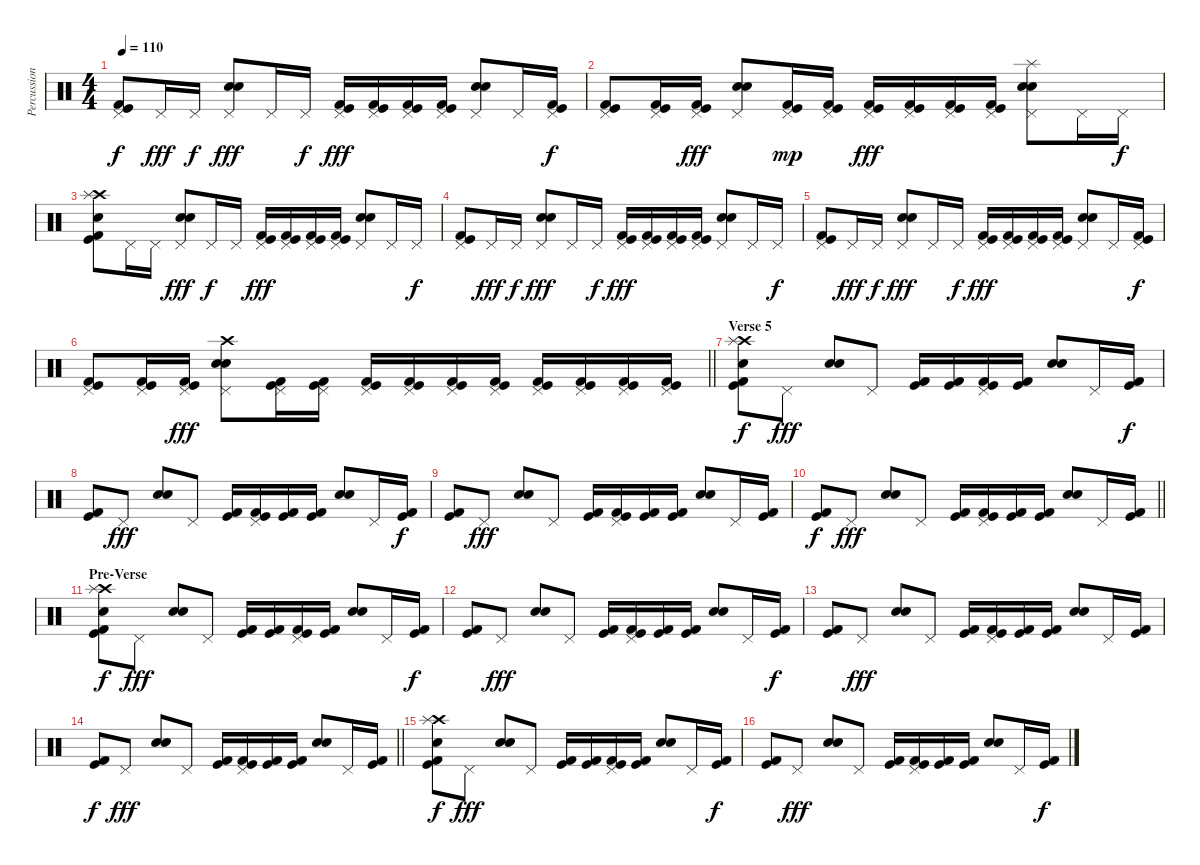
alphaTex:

\track ("Percussion" "Percussion") {instrument percussion}
\staff {score}
\articulation defaults
\ts (4 4)
\tempo 110
\clef neutral
\ks c
("Pedal Hi-Hat (hit)" "Kick (hit)" "Kick (hit) 2").8{dy f} "Pedal Hi-Hat (hit)".16{dy fff} "Pedal Hi-Hat (hit)".16{dy f} ("Electric Snare (hit)" "Snare (hit) 2" "Pedal Hi-Hat (hit)").8{dy fff} "Pedal Hi-Hat (hit)".16 "Pedal Hi-Hat (hit)".16{dy f} ("Pedal Hi-Hat (hit)" "Kick (hit)" "Kick (hit) 2").16{dy fff} ("Pedal Hi-Hat (hit)" "Kick (hit)" "Kick (hit) 2").16 ("Pedal Hi-Hat (hit)" "Kick (hit)" "Kick (hit) 2").16 ("Pedal Hi-Hat (hit)" "Kick (hit)" "Kick (hit) 2").16 ("Electric Snare (hit)" "Snare (hit) 2" "Pedal Hi-Hat (hit)").8 "Pedal Hi-Hat (hit)".16 ("Pedal Hi-Hat (hit)" "Kick (hit)" "Kick (hit) 2").16{dy f} |
("Pedal Hi-Hat (hit)" "Kick (hit)" "Kick (hit) 2").8 ("Pedal Hi-Hat (hit)" "Kick (hit)" "Kick (hit) 2").16 ("Pedal Hi-Hat (hit)" "Kick (hit)" "Kick (hit) 2").16{dy fff} ("Electric Snare (hit)" "Snare (hit) 2" "Pedal Hi-Hat (hit)").8 ("Pedal Hi-Hat (hit)" "Kick (hit)" "Kick (hit) 2").16{dy mp} ("Pedal Hi-Hat (hit)" "Kick (hit)" "Kick (hit) 2").16 ("Pedal Hi-Hat (hit)" "Kick (hit)" "Kick (hit) 2").16{dy fff} ("Pedal Hi-Hat (hit)" "Kick (hit)" "Kick (hit) 2").16 ("Pedal Hi-Hat (hit)" "Kick (hit)" "Kick (hit) 2").16 ("Pedal Hi-Hat (hit)" "Kick (hit)" "Kick (hit) 2").16 ("Splash (hit)" "Electric Snare (hit)" "Snare (hit) 2" "Pedal Hi-Hat (hit)").8 "Pedal Hi-Hat (hit)".16 "Pedal Hi-Hat (hit)".16{dy f} |
("Crash high (hit)" "Splash (hit)" "Snare (hit) 2" "Kick (hit)" "Kick (hit) 2").8 "Pedal Hi-Hat (hit)".16 "Pedal Hi-Hat (hit)".16 ("Electric Snare (hit)" "Snare (hit) 2" "Pedal Hi-Hat (hit)").8{dy fff} "Pedal Hi-Hat (hit)".16{dy f} "Pedal Hi-Hat (hit)".16 ("Pedal Hi-Hat (hit)" "Kick (hit)" "Kick (hit) 2").16{dy fff} ("Pedal Hi-Hat (hit)" "Kick (hit)" "Kick (hit) 2").16 ("Pedal Hi-Hat (hit)" "Kick (hit)" "Kick (hit) 2").16 ("Pedal Hi-Hat (hit)" "Kick (hit)" "Kick (hit) 2").16 ("Electric Snare (hit)" "Snare (hit) 2" "Pedal Hi-Hat (hit)").8 "Pedal Hi-Hat (hit)".16 "Pedal Hi-Hat (hit)".16{dy f} |
("Pedal Hi-Hat (hit)" "Kick (hit)" "Kick (hit) 2").8 "Pedal Hi-Hat (hit)".16{dy fff} "Pedal Hi-Hat (hit)".16{dy f} ("Electric Snare (hit)" "Snare (hit) 2" "Pedal Hi-Hat (hit)").8{dy fff} "Pedal Hi-Hat (hit)".16 "Pedal Hi-Hat (hit)".16{dy f} ("Pedal Hi-Hat (hit)" "Kick (hit)" "Kick (hit) 2").16{dy fff} ("Pedal Hi-Hat (hit)" "Kick (hit)" "Kick (hit) 2").16 ("Pedal Hi-Hat (hit)" "Kick (hit)" "Kick (hit) 2").16 ("Pedal Hi-Hat (hit)" "Kick (hit)" "Kick (hit) 2").16 ("Electric Snare (hit)" "Snare (hit) 2" "Pedal Hi-Hat (hit)").8 "Pedal Hi-Hat (hit)".16 "Pedal Hi-Hat (hit)".16{dy f} |
("Pedal Hi-Hat (hit)" "Kick (hit)" "Kick (hit) 2").8 "Pedal Hi-Hat (hit)".16{dy fff} "Pedal Hi-Hat (hit)".16{dy f} ("Electric Snare (hit)" "Snare (hit) 2" "Pedal Hi-Hat (hit)").8{dy fff} "Pedal Hi-Hat (hit)".16 "Pedal Hi-Hat (hit)".16{dy f} ("Pedal Hi-Hat (hit)" "Kick (hit)" "Kick (hit) 2").16{dy fff} ("Pedal Hi-Hat (hit)" "Kick (hit)" "Kick (hit) 2").16 ("Pedal Hi-Hat (hit)" "Kick (hit)" "Kick (hit) 2").16 ("Pedal Hi-Hat (hit)" "Kick (hit)" "Kick (hit) 2").16 ("Electric Snare (hit)" "Snare (hit) 2" "Pedal Hi-Hat (hit)").8 "Pedal Hi-Hat (hit)".16 ("Pedal Hi-Hat (hit)" "Kick (hit)" "Kick (hit) 2").16{dy f} |
\barLineRight lightlight
("Pedal Hi-Hat (hit)" "Kick (hit)" "Kick (hit) 2").8 ("Pedal Hi-Hat (hit)" "Kick (hit)" "Kick (hit) 2").16 ("Pedal Hi-Hat (hit)" "Kick (hit)" "Kick (hit) 2").16{dy fff} ("Crash high (hit)" "Electric Snare (hit)" "Snare (hit) 2" "Pedal Hi-Hat (hit)").8 ("Pedal Hi-Hat (hit)" "Kick (hit)" "Kick (hit) 2").16 ("Pedal Hi-Hat (hit)" "Kick (hit)" "Kick (hit) 2").16 ("Pedal Hi-Hat (hit)" "Kick (hit)" "Kick (hit) 2").16 ("Pedal Hi-Hat (hit)" "Kick (hit)" "Kick (hit) 2").16 ("Pedal Hi-Hat (hit)" "Kick (hit)" "Kick (hit) 2").16 ("Pedal Hi-Hat (hit)" "Kick (hit)" "Kick (hit) 2").16 ("Pedal Hi-Hat (hit)" "Kick (hit)" "Kick (hit) 2").16 ("Pedal Hi-Hat (hit)" "Kick (hit)" "Kick (hit) 2").16 ("Pedal Hi-Hat (hit)" "Kick (hit)" "Kick (hit) 2").16 ("Pedal Hi-Hat (hit)" "Kick (hit)" "Kick (hit) 2").16 |
\section ("" "Verse 5")
("Crash high (hit)" "Splash (hit)" "Snare (hit) 2" "Kick (hit)" "Kick (hit) 2").8{dy f} "Pedal Hi-Hat (hit)".8{dy fff} ("Electric Snare (hit)" "Snare (hit) 2").8 "Pedal Hi-Hat (hit)".8 ("Kick (hit)" "Kick (hit) 2").16 ("Kick (hit)" "Kick (hit) 2").16 ("Pedal Hi-Hat (hit)" "Kick (hit)" "Kick (hit) 2").16 ("Kick (hit)" "Kick (hit) 2").16 ("Electric Snare (hit)" "Snare (hit) 2").8 "Pedal Hi-Hat (hit)".16 ("Kick (hit)" "Kick (hit) 2").16{dy f} |
("Kick (hit)" "Kick (hit) 2").8 "Pedal Hi-Hat (hit)".8{dy fff} ("Electric Snare (hit)" "Snare (hit) 2").8 "Pedal Hi-Hat (hit)".8 ("Kick (hit)" "Kick (hit) 2").16 ("Pedal Hi-Hat (hit)" "Kick (hit)" "Kick (hit) 2").16 ("Kick (hit)" "Kick (hit) 2").16 ("Kick (hit)" "Kick (hit) 2").16 ("Electric Snare (hit)" "Snare (hit) 2").8 "Pedal Hi-Hat (hit)".16 ("Kick (hit)" "Kick (hit) 2").16{dy f} |
("Kick (hit)" "Kick (hit) 2").8 "Pedal Hi-Hat (hit)".8{dy fff} ("Electric Snare (hit)" "Snare (hit) 2").8 "Pedal Hi-Hat (hit)".8 ("Kick (hit)" "Kick (hit) 2").16 ("Pedal Hi-Hat (hit)" "Kick (hit)" "Kick (hit) 2").16 ("Kick (hit)" "Kick (hit) 2").16 ("Kick (hit)" "Kick (hit) 2").16 ("Electric Snare (hit)" "Snare (hit) 2").8 "Pedal Hi-Hat (hit)".16 ("Kick (hit)" "Kick (hit) 2").16 |
\barLineRight lightlight
("Kick (hit)" "Kick (hit) 2").8{dy f} "Pedal Hi-Hat (hit)".8{dy fff} ("Electric Snare (hit)" "Snare (hit) 2").8 "Pedal Hi-Hat (hit)".8 ("Kick (hit)" "Kick (hit) 2").16 ("Pedal Hi-Hat (hit)" "Kick (hit)" "Kick (hit) 2").16 ("Kick (hit)" "Kick (hit) 2").16 ("Kick (hit)" "Kick (hit) 2").16 ("Electric Snare (hit)" "Snare (hit) 2").8 "Pedal Hi-Hat (hit)".16 ("Kick (hit)" "Kick (hit) 2").16 |
\section ("" "Pre-Verse")
("Crash high (hit)" "Splash (hit)" "Snare (hit) 2" "Kick (hit)" "Kick (hit) 2").8{dy f} "Pedal Hi-Hat (hit)".8{dy fff} ("Electric Snare (hit)" "Snare (hit) 2").8 "Pedal Hi-Hat (hit)".8 ("Kick (hit)" "Kick (hit) 2").16 ("Kick (hit)" "Kick (hit) 2").16 ("Pedal Hi-Hat (hit)" "Kick (hit)" "Kick (hit) 2").16 ("Kick (hit)" "Kick (hit) 2").16 ("Electric Snare (hit)" "Snare (hit) 2").8 "Pedal Hi-Hat (hit)".16 ("Kick (hit)" "Kick (hit) 2").16{dy f} |
("Kick (hit)" "Kick (hit) 2").8 "Pedal Hi-Hat (hit)".8{dy fff} ("Electric Snare (hit)" "Snare (hit) 2").8 "Pedal Hi-Hat (hit)".8 ("Kick (hit)" "Kick (hit) 2").16 ("Pedal Hi-Hat (hit)" "Kick (hit)" "Kick (hit) 2").16 ("Kick (hit)" "Kick (hit) 2").16 ("Kick (hit)" "Kick (hit) 2").16 ("Electric Snare (hit)" "Snare (hit) 2").8 "Pedal Hi-Hat (hit)".16 ("Kick (hit)" "Kick (hit) 2").16{dy f} |
("Kick (hit)" "Kick (hit) 2").8 "Pedal Hi-Hat (hit)".8{dy fff} ("Electric Snare (hit)" "Snare (hit) 2").8 "Pedal Hi-Hat (hit)".8 ("Kick (hit)" "Kick (hit) 2").16 ("Pedal Hi-Hat (hit)" "Kick (hit)" "Kick (hit) 2").16 ("Kick (hit)" "Kick (hit) 2").16 ("Kick (hit)" "Kick (hit) 2").16 ("Electric Snare (hit)" "Snare (hit) 2").8 "Pedal Hi-Hat (hit)".16 ("Kick (hit)" "Kick (hit) 2").16 |
\barLineRight lightlight
("Kick (hit)" "Kick (hit) 2").8{dy f} "Pedal Hi-Hat (hit)".8{dy fff} ("Electric Snare (hit)" "Snare (hit) 2").8 "Pedal Hi-Hat (hit)".8 ("Kick (hit)" "Kick (hit) 2").16 ("Pedal Hi-Hat (hit)" "Kick (hit)" "Kick (hit) 2").16 ("Kick (hit)" "Kick (hit) 2").16 ("Kick (hit)" "Kick (hit) 2").16 ("Electric Snare (hit)" "Snare (hit) 2").8 "Pedal Hi-Hat (hit)".16 ("Kick (hit)" "Kick (hit) 2").16 |
("Crash high (hit)" "Splash (hit)" "Snare (hit) 2" "Kick (hit)" "Kick (hit) 2").8{dy f} "Pedal Hi-Hat (hit)".8{dy fff} ("Electric Snare (hit)" "Snare (hit) 2").8 "Pedal Hi-Hat (hit)".8 ("Kick (hit)" "Kick (hit) 2").16 ("Kick (hit)" "Kick (hit) 2").16 ("Pedal Hi-Hat (hit)" "Kick (hit)" "Kick (hit) 2").16 ("Kick (hit)" "Kick (hit) 2").16 ("Electric Snare (hit)" "Snare (hit) 2").8 "Pedal Hi-Hat (hit)".16 ("Kick (hit)" "Kick (hit) 2").16{dy f} |
("Kick (hit)" "Kick (hit) 2").8 "Pedal Hi-Hat (hit)".8{dy fff} ("Electric Snare (hit)" "Snare (hit) 2").8 "Pedal Hi-Hat (hit)".8 ("Kick (hit)" "Kick (hit) 2").16 ("Pedal Hi-Hat (hit)" "Kick (hit)" "Kick (hit) 2").16 ("Kick (hit)" "Kick (hit) 2").16 ("Kick (hit)" "Kick (hit) 2").16 ("Electric Snare (hit)" "Snare (hit) 2").8 "Pedal Hi-Hat (hit)".16 ("Kick (hit)" "Kick (hit) 2").16{dy f}
